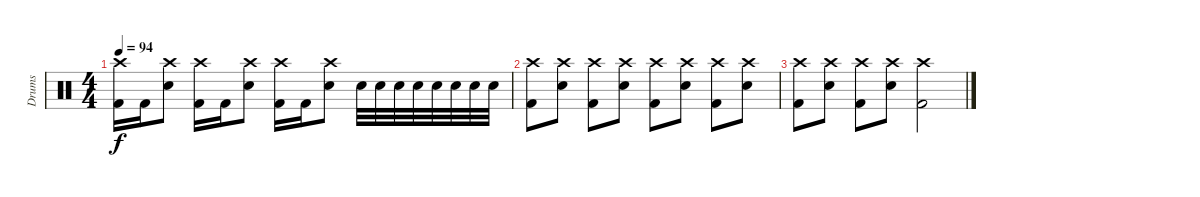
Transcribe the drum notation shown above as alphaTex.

\track ("Drums" "Drums") {instrument percussion}
\staff {score}
\articulation defaults
\ts (4 4)
\tempo 94
\clef neutral
\ks c
("Crash high (hit)" "Kick (hit) 2").16{dy f} "Kick (hit) 2".16 ("Crash high (hit)" "Electric Snare (hit)").8 ("Crash high (hit)" "Kick (hit) 2").16 "Kick (hit) 2".16 ("Crash high (hit)" "Electric Snare (hit)").8 ("Crash high (hit)" "Kick (hit) 2").16 "Kick (hit) 2".16 ("Crash high (hit)" "Electric Snare (hit)").8 "Electric Snare (hit)".32 "Electric Snare (hit)".32 "Electric Snare (hit)".32 "Electric Snare (hit)".32 "Electric Snare (hit)".32 "Electric Snare (hit)".32 "Electric Snare (hit)".32 "Electric Snare (hit)".32 |
("Crash high (hit)" "Kick (hit) 2").8 ("Crash high (hit)" "Electric Snare (hit)").8 ("Crash high (hit)" "Kick (hit) 2").8 ("Crash high (hit)" "Electric Snare (hit)").8 ("Crash high (hit)" "Kick (hit) 2").8 ("Crash high (hit)" "Electric Snare (hit)").8 ("Crash high (hit)" "Kick (hit) 2").8 ("Crash high (hit)" "Electric Snare (hit)").8 |
("Crash high (hit)" "Kick (hit) 2").8 ("Crash high (hit)" "Electric Snare (hit)").8 ("Crash high (hit)" "Kick (hit) 2").8 ("Crash high (hit)" "Electric Snare (hit)").8 ("Crash high (hit)" "Kick (hit) 2").2
